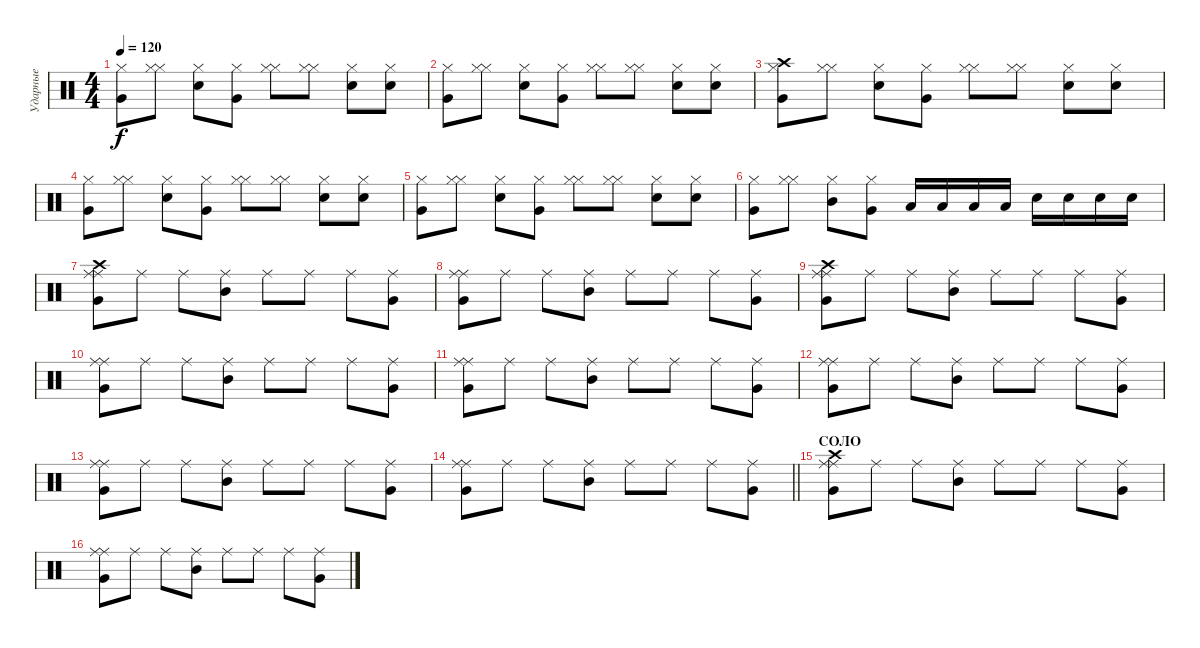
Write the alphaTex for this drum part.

\track ("Ударные" "Ударные") {instrument percussion}
\staff {score}
\articulation defaults
\ts (4 4)
\tempo 120
\clef neutral
\ks c
("Hi-Hat (closed)" "Very Low Tom (hit)").8{dy f} ("Hi-Hat (closed)" "Hi-Hat (closed)").8 ("Hi-Hat (closed)" "Snare (hit) 2").8 ("Hi-Hat (closed)" "Very Low Tom (hit)").8 ("Hi-Hat (closed)" "Hi-Hat (closed)").8 ("Hi-Hat (closed)" "Hi-Hat (closed)").8 ("Hi-Hat (closed)" "Snare (hit) 2").8 ("Hi-Hat (closed)" "Snare (hit) 2").8 |
("Hi-Hat (closed)" "Very Low Tom (hit)").8 ("Hi-Hat (closed)" "Hi-Hat (closed)").8 ("Hi-Hat (closed)" "Snare (hit) 2").8 ("Hi-Hat (closed)" "Very Low Tom (hit)").8 ("Hi-Hat (closed)" "Hi-Hat (closed)").8 ("Hi-Hat (closed)" "Hi-Hat (closed)").8 ("Hi-Hat (closed)" "Snare (hit) 2").8 ("Hi-Hat (closed)" "Snare (hit) 2").8 |
("Hi-Hat (closed)" "Crash high (hit)" "Very Low Tom (hit)").8 ("Hi-Hat (closed)" "Hi-Hat (closed)").8 ("Hi-Hat (closed)" "Snare (hit) 2").8 ("Hi-Hat (closed)" "Very Low Tom (hit)").8 ("Hi-Hat (closed)" "Hi-Hat (closed)").8 ("Hi-Hat (closed)" "Hi-Hat (closed)").8 ("Hi-Hat (closed)" "Snare (hit) 2").8 ("Hi-Hat (closed)" "Snare (hit) 2").8 |
("Hi-Hat (closed)" "Very Low Tom (hit)").8 ("Hi-Hat (closed)" "Hi-Hat (closed)").8 ("Hi-Hat (closed)" "Snare (hit) 2").8 ("Hi-Hat (closed)" "Very Low Tom (hit)").8 ("Hi-Hat (closed)" "Hi-Hat (closed)").8 ("Hi-Hat (closed)" "Hi-Hat (closed)").8 ("Hi-Hat (closed)" "Snare (hit) 2").8 ("Hi-Hat (closed)" "Snare (hit) 2").8 |
("Hi-Hat (closed)" "Very Low Tom (hit)").8 ("Hi-Hat (closed)" "Hi-Hat (closed)").8 ("Hi-Hat (closed)" "Snare (hit) 2").8 ("Hi-Hat (closed)" "Very Low Tom (hit)").8 ("Hi-Hat (closed)" "Hi-Hat (closed)").8 ("Hi-Hat (closed)" "Hi-Hat (closed)").8 ("Hi-Hat (closed)" "Snare (hit) 2").8 ("Hi-Hat (closed)" "Snare (hit) 2").8 |
("Hi-Hat (closed)" "Very Low Tom (hit)").8 ("Hi-Hat (closed)" "Hi-Hat (closed)").8 ("Hi-Hat (closed)" "Mid Tom (hit)").8 ("Hi-Hat (closed)" "Very Low Tom (hit)").8 "Low Tom (hit)".16 "Low Tom (hit)".16 "Low Tom (hit)".16 "Low Tom (hit)".16 "Snare (hit) 2".16 "Snare (hit) 2".16 "Snare (hit) 2".16 "Snare (hit) 2".16 |
("Crash high (hit)" "Ride (middle)" "Ride (middle)" "Very Low Tom (hit)").8 "Ride (middle)".8 "Ride (middle)".8 ("Ride (middle)" "Mid Tom (hit)").8 "Ride (middle)".8 "Ride (middle)".8 "Ride (middle)".8 ("Ride (middle)" "Very Low Tom (hit)").8 |
("Ride (middle)" "Ride (middle)" "Very Low Tom (hit)").8 "Ride (middle)".8 "Ride (middle)".8 ("Ride (middle)" "Mid Tom (hit)").8 "Ride (middle)".8 "Ride (middle)".8 "Ride (middle)".8 ("Ride (middle)" "Very Low Tom (hit)").8 |
("Crash high (hit)" "Ride (middle)" "Ride (middle)" "Very Low Tom (hit)").8 "Ride (middle)".8 "Ride (middle)".8 ("Ride (middle)" "Mid Tom (hit)").8 "Ride (middle)".8 "Ride (middle)".8 "Ride (middle)".8 ("Ride (middle)" "Very Low Tom (hit)").8 |
("Ride (middle)" "Ride (middle)" "Very Low Tom (hit)").8 "Ride (middle)".8 "Ride (middle)".8 ("Ride (middle)" "Mid Tom (hit)").8 "Ride (middle)".8 "Ride (middle)".8 "Ride (middle)".8 ("Ride (middle)" "Very Low Tom (hit)").8 |
("Ride (middle)" "Ride (middle)" "Very Low Tom (hit)").8 "Ride (middle)".8 "Ride (middle)".8 ("Ride (middle)" "Mid Tom (hit)").8 "Ride (middle)".8 "Ride (middle)".8 "Ride (middle)".8 ("Ride (middle)" "Very Low Tom (hit)").8 |
("Ride (middle)" "Ride (middle)" "Very Low Tom (hit)").8 "Ride (middle)".8 "Ride (middle)".8 ("Ride (middle)" "Mid Tom (hit)").8 "Ride (middle)".8 "Ride (middle)".8 "Ride (middle)".8 ("Ride (middle)" "Very Low Tom (hit)").8 |
("Ride (middle)" "Ride (middle)" "Very Low Tom (hit)").8 "Ride (middle)".8 "Ride (middle)".8 ("Ride (middle)" "Mid Tom (hit)").8 "Ride (middle)".8 "Ride (middle)".8 "Ride (middle)".8 ("Ride (middle)" "Very Low Tom (hit)").8 |
\barLineRight lightlight
("Ride (middle)" "Ride (middle)" "Very Low Tom (hit)").8 "Ride (middle)".8 "Ride (middle)".8 ("Ride (middle)" "Mid Tom (hit)").8 "Ride (middle)".8 "Ride (middle)".8 "Ride (middle)".8 ("Ride (middle)" "Very Low Tom (hit)").8 |
\section ("" "СОЛО")
("Crash high (hit)" "Ride (middle)" "Ride (middle)" "Very Low Tom (hit)").8{volume 11} "Ride (middle)".8 "Ride (middle)".8 ("Ride (middle)" "Mid Tom (hit)").8 "Ride (middle)".8 "Ride (middle)".8 "Ride (middle)".8 ("Ride (middle)" "Very Low Tom (hit)").8 |
("Ride (middle)" "Ride (middle)" "Very Low Tom (hit)").8 "Ride (middle)".8 "Ride (middle)".8 ("Ride (middle)" "Mid Tom (hit)").8 "Ride (middle)".8 "Ride (middle)".8 "Ride (middle)".8 ("Ride (middle)" "Very Low Tom (hit)").8
